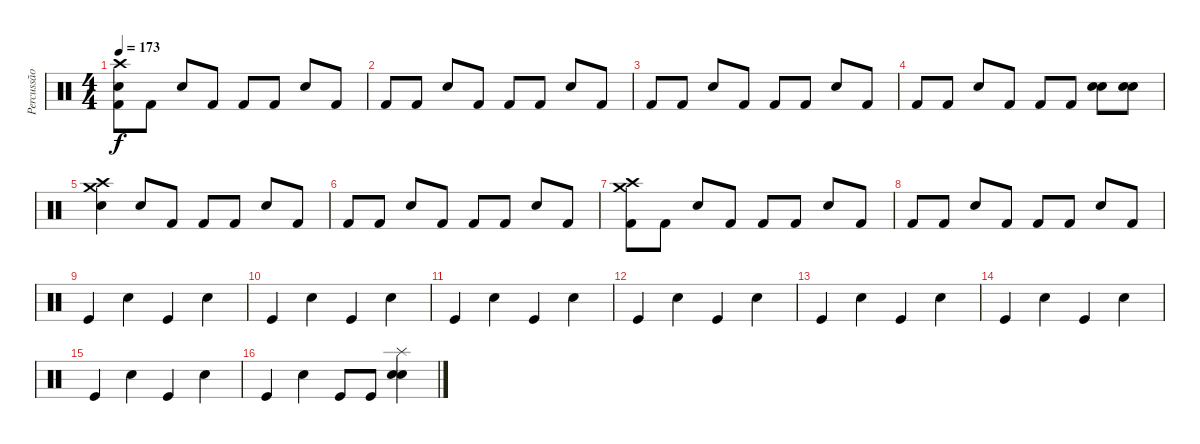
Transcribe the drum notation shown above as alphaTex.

\track ("Percussão" "Percussão") {instrument percussion}
\staff {score}
\articulation defaults
\ts (4 4)
\tempo 173
\clef neutral
\ks c
("Crash high (hit)" "Kick (hit) 2" "Electric Snare (hit)").8{dy f} "Kick (hit) 2".8 "Snare (hit) 2".8 "Kick (hit) 2".8 "Kick (hit) 2".8 "Kick (hit) 2".8 "Snare (hit) 2".8 "Kick (hit) 2".8 |
"Kick (hit) 2".8 "Kick (hit) 2".8 "Snare (hit) 2".8 "Kick (hit) 2".8 "Kick (hit) 2".8 "Kick (hit) 2".8 "Snare (hit) 2".8 "Kick (hit) 2".8 |
"Kick (hit) 2".8 "Kick (hit) 2".8 "Snare (hit) 2".8 "Kick (hit) 2".8 "Kick (hit) 2".8 "Kick (hit) 2".8 "Snare (hit) 2".8 "Kick (hit) 2".8 |
"Kick (hit) 2".8 "Kick (hit) 2".8 "Snare (hit) 2".8 "Kick (hit) 2".8 "Kick (hit) 2".8 "Kick (hit) 2".8 ("Snare (hit) 2" "Electric Snare (hit)").8 ("Snare (hit) 2" "Electric Snare (hit)").8 |
("Crash high (hit)" "Crash medium (hit)" "Snare (hit) 2").4 "Snare (hit) 2".8 "Kick (hit) 2".8 "Kick (hit) 2".8 "Kick (hit) 2".8 "Snare (hit) 2".8 "Kick (hit) 2".8 |
"Kick (hit) 2".8 "Kick (hit) 2".8 "Snare (hit) 2".8 "Kick (hit) 2".8 "Kick (hit) 2".8 "Kick (hit) 2".8 "Snare (hit) 2".8 "Kick (hit) 2".8 |
("Crash high (hit)" "Kick (hit) 2" "Crash medium (hit)").8 "Kick (hit) 2".8 "Snare (hit) 2".8 "Kick (hit) 2".8 "Kick (hit) 2".8 "Kick (hit) 2".8 "Snare (hit) 2".8 "Kick (hit) 2".8 |
"Kick (hit) 2".8 "Kick (hit) 2".8 "Snare (hit) 2".8 "Kick (hit) 2".8 "Kick (hit) 2".8 "Kick (hit) 2".8 "Snare (hit) 2".8 "Kick (hit) 2".8 |
"Kick (hit)".4 "Snare (hit) 2".4 "Kick (hit)".4 "Snare (hit) 2".4 |
"Kick (hit)".4 "Snare (hit) 2".4 "Kick (hit)".4 "Snare (hit) 2".4 |
"Kick (hit)".4 "Snare (hit) 2".4 "Kick (hit)".4 "Snare (hit) 2".4 |
"Kick (hit)".4 "Snare (hit) 2".4 "Kick (hit)".4 "Snare (hit) 2".4 |
"Kick (hit)".4 "Snare (hit) 2".4 "Kick (hit)".4 "Snare (hit) 2".4 |
"Kick (hit)".4 "Snare (hit) 2".4 "Kick (hit)".4 "Snare (hit) 2".4 |
"Kick (hit)".4 "Snare (hit) 2".4 "Kick (hit)".4 "Snare (hit) 2".4 |
"Kick (hit)".4 "Snare (hit) 2".4 "Kick (hit)".8 "Kick (hit)".8 ("Snare (hit) 2" "Splash (hit)" "Electric Snare (hit)").4
